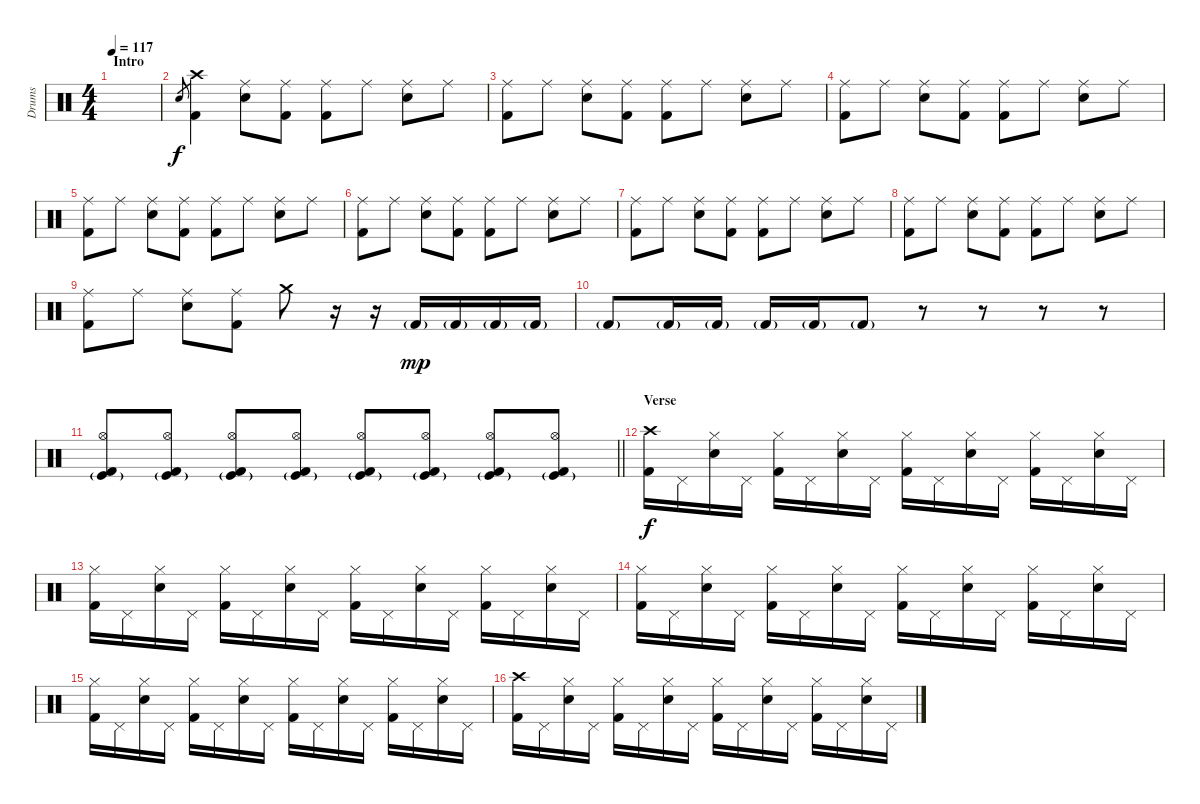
\track ("Drums" "Drums") {instrument percussion}
\staff {score}
\articulation defaults
\ts (4 4)
\section ("" "Intro")
\tempo 117
\clef neutral
\ks c
|
"Electric Snare (hit)".8{gr} ("Crash high (hit)" "Kick (hit) 2").4 ("Ride (middle)" "Electric Snare (hit)").8 ("Ride (middle)" "Kick (hit) 2").8 ("Ride (middle)" "Kick (hit) 2").8 "Ride (middle)".8 ("Ride (middle)" "Electric Snare (hit)").8 "Ride (middle)".8 |
("Ride (middle)" "Kick (hit) 2").8 "Ride (middle)".8 ("Ride (middle)" "Electric Snare (hit)").8 ("Ride (middle)" "Kick (hit) 2").8 ("Ride (middle)" "Kick (hit) 2").8 "Ride (middle)".8 ("Ride (middle)" "Electric Snare (hit)").8 "Ride (middle)".8 |
("Ride (middle)" "Kick (hit) 2").8 "Ride (middle)".8 ("Ride (middle)" "Electric Snare (hit)").8 ("Ride (middle)" "Kick (hit) 2").8 ("Ride (middle)" "Kick (hit) 2").8 "Ride (middle)".8 ("Ride (middle)" "Electric Snare (hit)").8 "Ride (middle)".8 |
("Ride (middle)" "Kick (hit) 2").8 "Ride (middle)".8 ("Ride (middle)" "Electric Snare (hit)").8 ("Ride (middle)" "Kick (hit) 2").8 ("Ride (middle)" "Kick (hit) 2").8 "Ride (middle)".8 ("Ride (middle)" "Electric Snare (hit)").8 "Ride (middle)".8 |
("Ride (middle)" "Kick (hit) 2").8 "Ride (middle)".8 ("Ride (middle)" "Electric Snare (hit)").8 ("Ride (middle)" "Kick (hit) 2").8 ("Ride (middle)" "Kick (hit) 2").8 "Ride (middle)".8 ("Ride (middle)" "Electric Snare (hit)").8 "Ride (middle)".8 |
("Ride (middle)" "Kick (hit) 2").8 "Ride (middle)".8 ("Ride (middle)" "Electric Snare (hit)").8 ("Ride (middle)" "Kick (hit) 2").8 ("Ride (middle)" "Kick (hit) 2").8 "Ride (middle)".8 ("Ride (middle)" "Electric Snare (hit)").8 "Ride (middle)".8 |
("Ride (middle)" "Kick (hit) 2").8 "Ride (middle)".8 ("Ride (middle)" "Electric Snare (hit)").8 ("Ride (middle)" "Kick (hit) 2").8 ("Ride (middle)" "Kick (hit) 2").8 "Ride (middle)".8 ("Ride (middle)" "Electric Snare (hit)").8 "Ride (middle)".8 |
("Ride (middle)" "Kick (hit) 2").8 "Ride (middle)".8 ("Ride (middle)" "Electric Snare (hit)").8 ("Ride (middle)" "Kick (hit) 2").8 "Crash medium (hit)".8 r.16 r.16 "Kick (hit) 2"{g}.16{dy mp} "Kick (hit) 2"{g}.16 "Kick (hit) 2"{g}.16 "Kick (hit) 2"{g}.16 |
"Kick (hit) 2"{g}.8 "Kick (hit) 2"{g}.16 "Kick (hit) 2"{g}.16 "Kick (hit) 2"{g}.16 "Kick (hit) 2"{g}.16 "Kick (hit) 2"{g}.8 r.8 r.8 r.8{volume 0} r.8{volume 13} |
\barLineRight lightlight
("Hi-Hat (open)" "Kick (hit)"{g} "Kick (hit) 2").8 ("Hi-Hat (open)" "Kick (hit)"{g} "Kick (hit) 2").8 ("Hi-Hat (open)" "Kick (hit)"{g} "Kick (hit) 2").8 ("Hi-Hat (open)" "Kick (hit)"{g} "Kick (hit) 2").8 ("Hi-Hat (open)" "Kick (hit)"{g} "Kick (hit) 2").8 ("Hi-Hat (open)" "Kick (hit)"{g} "Kick (hit) 2").8 ("Hi-Hat (open)" "Kick (hit)"{g} "Kick (hit) 2").8 ("Hi-Hat (open)" "Kick (hit)"{g} "Kick (hit) 2").8 |
\section ("" "Verse")
("Crash high (hit)" "Kick (hit) 2").16{dy f} "Pedal Hi-Hat (hit)".16 ("Hi-Hat (closed)" "Electric Snare (hit)").16 "Pedal Hi-Hat (hit)".16 ("Hi-Hat (closed)" "Kick (hit) 2").16 "Pedal Hi-Hat (hit)".16 ("Hi-Hat (closed)" "Electric Snare (hit)").16 "Pedal Hi-Hat (hit)".16 ("Hi-Hat (closed)" "Kick (hit) 2").16 "Pedal Hi-Hat (hit)".16 ("Hi-Hat (closed)" "Electric Snare (hit)").16 "Pedal Hi-Hat (hit)".16 ("Hi-Hat (closed)" "Kick (hit) 2").16 "Pedal Hi-Hat (hit)".16 ("Hi-Hat (closed)" "Electric Snare (hit)").16 "Pedal Hi-Hat (hit)".16 |
("Hi-Hat (closed)" "Kick (hit) 2").16 "Pedal Hi-Hat (hit)".16 ("Hi-Hat (closed)" "Electric Snare (hit)").16 "Pedal Hi-Hat (hit)".16 ("Hi-Hat (closed)" "Kick (hit) 2").16 "Pedal Hi-Hat (hit)".16 ("Hi-Hat (closed)" "Electric Snare (hit)").16 "Pedal Hi-Hat (hit)".16 ("Hi-Hat (closed)" "Kick (hit) 2").16 "Pedal Hi-Hat (hit)".16 ("Hi-Hat (closed)" "Electric Snare (hit)").16 "Pedal Hi-Hat (hit)".16 ("Hi-Hat (closed)" "Kick (hit) 2").16 "Pedal Hi-Hat (hit)".16 ("Hi-Hat (closed)" "Electric Snare (hit)").16 "Pedal Hi-Hat (hit)".16 |
("Hi-Hat (closed)" "Kick (hit) 2").16 "Pedal Hi-Hat (hit)".16 ("Hi-Hat (closed)" "Electric Snare (hit)").16 "Pedal Hi-Hat (hit)".16 ("Hi-Hat (closed)" "Kick (hit) 2").16 "Pedal Hi-Hat (hit)".16 ("Hi-Hat (closed)" "Electric Snare (hit)").16 "Pedal Hi-Hat (hit)".16 ("Hi-Hat (closed)" "Kick (hit) 2").16 "Pedal Hi-Hat (hit)".16 ("Hi-Hat (closed)" "Electric Snare (hit)").16 "Pedal Hi-Hat (hit)".16 ("Hi-Hat (closed)" "Kick (hit) 2").16 "Pedal Hi-Hat (hit)".16 ("Hi-Hat (closed)" "Electric Snare (hit)").16 "Pedal Hi-Hat (hit)".16 |
("Hi-Hat (closed)" "Kick (hit) 2").16 "Pedal Hi-Hat (hit)".16 ("Hi-Hat (closed)" "Electric Snare (hit)").16 "Pedal Hi-Hat (hit)".16 ("Hi-Hat (closed)" "Kick (hit) 2").16 "Pedal Hi-Hat (hit)".16 ("Hi-Hat (closed)" "Electric Snare (hit)").16 "Pedal Hi-Hat (hit)".16 ("Hi-Hat (closed)" "Kick (hit) 2").16 "Pedal Hi-Hat (hit)".16 ("Hi-Hat (closed)" "Electric Snare (hit)").16 "Pedal Hi-Hat (hit)".16 ("Hi-Hat (closed)" "Kick (hit) 2").16 "Pedal Hi-Hat (hit)".16 ("Hi-Hat (closed)" "Electric Snare (hit)").16 "Pedal Hi-Hat (hit)".16 |
("Crash high (hit)" "Kick (hit) 2").16 "Pedal Hi-Hat (hit)".16 ("Hi-Hat (closed)" "Electric Snare (hit)").16 "Pedal Hi-Hat (hit)".16 ("Hi-Hat (closed)" "Kick (hit) 2").16 "Pedal Hi-Hat (hit)".16 ("Hi-Hat (closed)" "Electric Snare (hit)").16 "Pedal Hi-Hat (hit)".16 ("Hi-Hat (closed)" "Kick (hit) 2").16 "Pedal Hi-Hat (hit)".16 ("Hi-Hat (closed)" "Electric Snare (hit)").16 "Pedal Hi-Hat (hit)".16 ("Hi-Hat (closed)" "Kick (hit) 2").16 "Pedal Hi-Hat (hit)".16 ("Hi-Hat (closed)" "Electric Snare (hit)").16 "Pedal Hi-Hat (hit)".16
